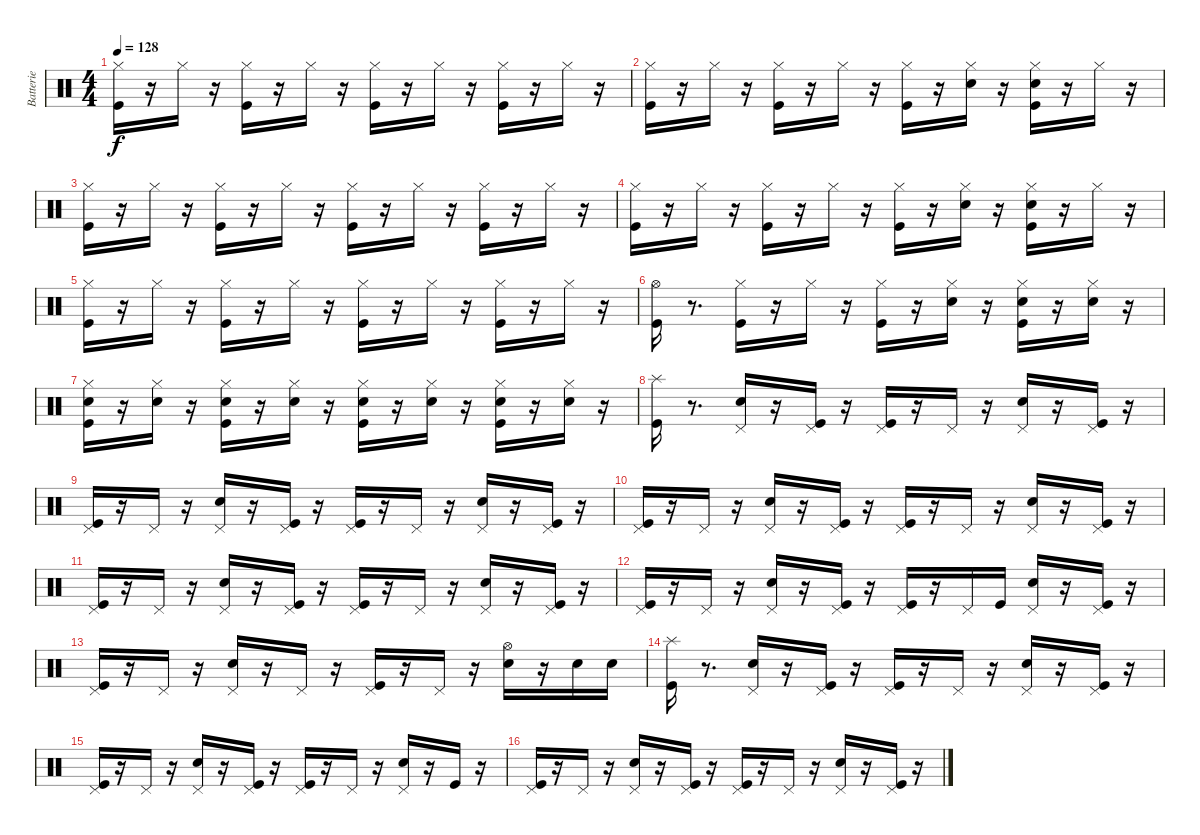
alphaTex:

\track ("Batterie" "Batterie") {instrument percussion}
\staff {score}
\articulation defaults
\ts (4 4)
\tempo 128
\clef neutral
\ks c
("Kick (hit)" "Hi-Hat (closed)").16{dy f} r.16 "Hi-Hat (closed)".16 r.16 ("Kick (hit)" "Hi-Hat (closed)").16 r.16 "Hi-Hat (closed)".16 r.16 ("Kick (hit)" "Hi-Hat (closed)").16 r.16 "Hi-Hat (closed)".16 r.16 ("Kick (hit)" "Hi-Hat (closed)").16 r.16 "Hi-Hat (closed)".16 r.16 |
("Kick (hit)" "Hi-Hat (closed)").16 r.16 "Hi-Hat (closed)".16 r.16 ("Kick (hit)" "Hi-Hat (closed)").16 r.16 "Hi-Hat (closed)".16 r.16 ("Kick (hit)" "Hi-Hat (closed)").16 r.16 ("Snare (hit) 2" "Hi-Hat (closed)").16 r.16 ("Snare (hit) 2" "Kick (hit)" "Hi-Hat (closed)").16 r.16 "Hi-Hat (closed)".16 r.16 |
("Kick (hit)" "Hi-Hat (closed)").16 r.16 "Hi-Hat (closed)".16 r.16 ("Kick (hit)" "Hi-Hat (closed)").16 r.16 "Hi-Hat (closed)".16 r.16 ("Kick (hit)" "Hi-Hat (closed)").16 r.16 "Hi-Hat (closed)".16 r.16 ("Kick (hit)" "Hi-Hat (closed)").16 r.16 "Hi-Hat (closed)".16 r.16 |
("Kick (hit)" "Hi-Hat (closed)").16 r.16 "Hi-Hat (closed)".16 r.16 ("Kick (hit)" "Hi-Hat (closed)").16 r.16 "Hi-Hat (closed)".16 r.16 ("Kick (hit)" "Hi-Hat (closed)").16 r.16 ("Snare (hit) 2" "Hi-Hat (closed)").16 r.16 ("Snare (hit) 2" "Kick (hit)" "Hi-Hat (closed)").16 r.16 "Hi-Hat (closed)".16 r.16 |
("Kick (hit)" "Hi-Hat (closed)").16 r.16 "Hi-Hat (closed)".16 r.16 ("Kick (hit)" "Hi-Hat (closed)").16 r.16 "Hi-Hat (closed)".16 r.16 ("Kick (hit)" "Hi-Hat (closed)").16 r.16 "Hi-Hat (closed)".16 r.16 ("Kick (hit)" "Hi-Hat (closed)").16 r.16 "Hi-Hat (closed)".16 r.16 |
("Hi-Hat (open)" "Kick (hit)").16 r.8{d} ("Kick (hit)" "Hi-Hat (closed)").16 r.16 "Hi-Hat (closed)".16 r.16 ("Kick (hit)" "Hi-Hat (closed)").16 r.16 ("Snare (hit) 2" "Hi-Hat (closed)").16 r.16 ("Snare (hit) 2" "Kick (hit)" "Hi-Hat (closed)").16 r.16 ("Snare (hit) 2" "Hi-Hat (closed)").16 r.16 |
("Snare (hit) 2" "Kick (hit)" "Hi-Hat (closed)").16 r.16 ("Snare (hit) 2" "Hi-Hat (closed)").16 r.16 ("Snare (hit) 2" "Kick (hit)" "Hi-Hat (closed)").16 r.16 ("Snare (hit) 2" "Hi-Hat (closed)").16 r.16 ("Snare (hit) 2" "Kick (hit)" "Hi-Hat (closed)").16 r.16 ("Snare (hit) 2" "Hi-Hat (closed)").16 r.16 ("Snare (hit) 2" "Kick (hit)" "Hi-Hat (closed)").16 r.16 ("Snare (hit) 2" "Hi-Hat (closed)").16 r.16 |
("Kick (hit)" "Splash (hit)").16 r.8{d} ("Pedal Hi-Hat (hit)" "Snare (hit) 2").16 r.16 ("Kick (hit)" "Pedal Hi-Hat (hit)").16 r.16 ("Pedal Hi-Hat (hit)" "Kick (hit)").16 r.16 "Pedal Hi-Hat (hit)".16 r.16 ("Pedal Hi-Hat (hit)" "Snare (hit) 2").16 r.16 ("Kick (hit)" "Pedal Hi-Hat (hit)").16 r.16 |
("Pedal Hi-Hat (hit)" "Kick (hit)").16 r.16 "Pedal Hi-Hat (hit)".16 r.16 ("Pedal Hi-Hat (hit)" "Snare (hit) 2").16 r.16 ("Pedal Hi-Hat (hit)" "Kick (hit)").16 r.16 ("Pedal Hi-Hat (hit)" "Kick (hit)").16 r.16 "Pedal Hi-Hat (hit)".16 r.16 ("Pedal Hi-Hat (hit)" "Snare (hit) 2").16 r.16 ("Pedal Hi-Hat (hit)" "Kick (hit)").16 r.16 |
("Pedal Hi-Hat (hit)" "Kick (hit)").16 r.16 "Pedal Hi-Hat (hit)".16 r.16 ("Pedal Hi-Hat (hit)" "Snare (hit) 2").16 r.16 ("Kick (hit)" "Pedal Hi-Hat (hit)").16 r.16 ("Pedal Hi-Hat (hit)" "Kick (hit)").16 r.16 "Pedal Hi-Hat (hit)".16 r.16 ("Pedal Hi-Hat (hit)" "Snare (hit) 2").16 r.16 ("Kick (hit)" "Pedal Hi-Hat (hit)").16 r.16 |
("Pedal Hi-Hat (hit)" "Kick (hit)").16 r.16 "Pedal Hi-Hat (hit)".16 r.16 ("Pedal Hi-Hat (hit)" "Snare (hit) 2").16 r.16 ("Pedal Hi-Hat (hit)" "Kick (hit)").16 r.16 ("Pedal Hi-Hat (hit)" "Kick (hit)").16 r.16 "Pedal Hi-Hat (hit)".16 r.16 ("Pedal Hi-Hat (hit)" "Snare (hit) 2").16 r.16 ("Pedal Hi-Hat (hit)" "Kick (hit)").16 r.16 |
("Pedal Hi-Hat (hit)" "Kick (hit)").16 r.16 "Pedal Hi-Hat (hit)".16 r.16 ("Pedal Hi-Hat (hit)" "Snare (hit) 2").16 r.16 ("Kick (hit)" "Pedal Hi-Hat (hit)").16 r.16 ("Pedal Hi-Hat (hit)" "Kick (hit)").16 r.16 "Pedal Hi-Hat (hit)".16 "Kick (hit)".16 ("Pedal Hi-Hat (hit)" "Snare (hit) 2").16 r.16 ("Kick (hit)" "Pedal Hi-Hat (hit)").16 r.16 |
("Pedal Hi-Hat (hit)" "Kick (hit)").16 r.16 "Pedal Hi-Hat (hit)".16 r.16 ("Pedal Hi-Hat (hit)" "Snare (hit) 2").16 r.16 "Pedal Hi-Hat (hit)".16 r.16 ("Pedal Hi-Hat (hit)" "Kick (hit)").16 r.16 "Pedal Hi-Hat (hit)".16 r.16 ("Hi-Hat (open)" "Snare (hit) 2").16 r.16 "Snare (hit) 2".16 "Snare (hit) 2".16 |
("Splash (hit)" "Kick (hit)").16 r.8{d} ("Pedal Hi-Hat (hit)" "Snare (hit) 2").16 r.16 ("Kick (hit)" "Pedal Hi-Hat (hit)").16 r.16 ("Pedal Hi-Hat (hit)" "Kick (hit)").16 r.16 "Pedal Hi-Hat (hit)".16 r.16 ("Pedal Hi-Hat (hit)" "Snare (hit) 2").16 r.16 ("Kick (hit)" "Pedal Hi-Hat (hit)").16 r.16 |
("Pedal Hi-Hat (hit)" "Kick (hit)").16 r.16 "Pedal Hi-Hat (hit)".16 r.16 ("Pedal Hi-Hat (hit)" "Snare (hit) 2").16 r.16 ("Pedal Hi-Hat (hit)" "Kick (hit)").16 r.16 ("Pedal Hi-Hat (hit)" "Kick (hit)").16 r.16 "Pedal Hi-Hat (hit)".16 r.16 ("Pedal Hi-Hat (hit)" "Snare (hit) 2").16 r.16 "Kick (hit)".16 r.16 |
("Pedal Hi-Hat (hit)" "Kick (hit)").16 r.16 "Pedal Hi-Hat (hit)".16 r.16 ("Pedal Hi-Hat (hit)" "Snare (hit) 2").16 r.16 ("Kick (hit)" "Pedal Hi-Hat (hit)").16 r.16 ("Pedal Hi-Hat (hit)" "Kick (hit)").16 r.16 "Pedal Hi-Hat (hit)".16 r.16 ("Pedal Hi-Hat (hit)" "Snare (hit) 2").16 r.16 ("Kick (hit)" "Pedal Hi-Hat (hit)").16 r.16
